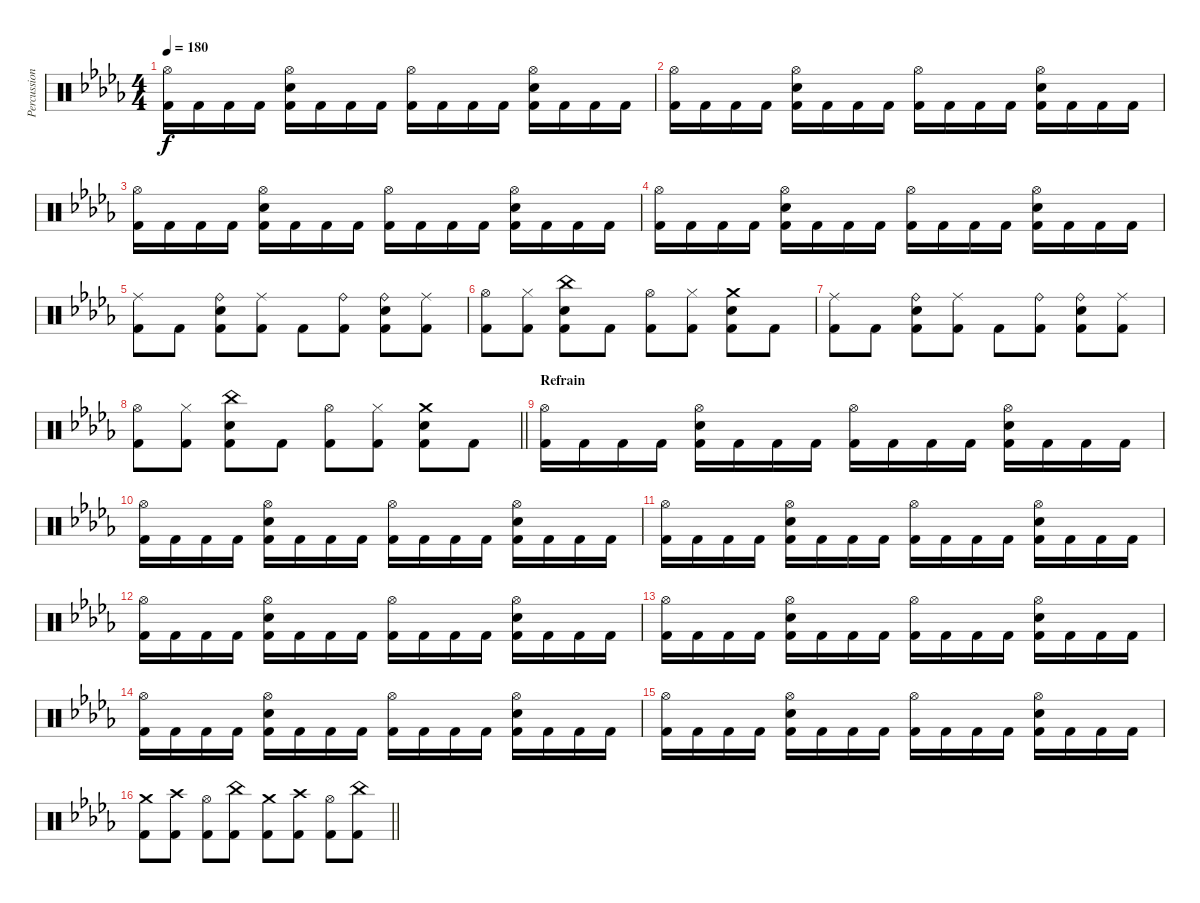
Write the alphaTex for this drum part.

\track ("Percussions" "Percussion") {instrument percussion}
\staff {score}
\articulation defaults
\ts (4 4)
\tempo 180
\clef neutral
\ks bbminor
("Hi-Hat (open)" "Kick (hit) 2").16{dy f} "Kick (hit) 2".16 "Kick (hit) 2".16 "Kick (hit) 2".16 ("Hi-Hat (open)" "Electric Snare (hit)" "Kick (hit) 2").16 "Kick (hit) 2".16 "Kick (hit) 2".16 "Kick (hit) 2".16 ("Hi-Hat (open)" "Kick (hit) 2").16 "Kick (hit) 2".16 "Kick (hit) 2".16 "Kick (hit) 2".16 ("Hi-Hat (open)" "Electric Snare (hit)" "Kick (hit) 2").16 "Kick (hit) 2".16 "Kick (hit) 2".16 "Kick (hit) 2".16 |
("Hi-Hat (open)" "Kick (hit) 2").16 "Kick (hit) 2".16 "Kick (hit) 2".16 "Kick (hit) 2".16 ("Hi-Hat (open)" "Electric Snare (hit)" "Kick (hit) 2").16 "Kick (hit) 2".16 "Kick (hit) 2".16 "Kick (hit) 2".16 ("Hi-Hat (open)" "Kick (hit) 2").16 "Kick (hit) 2".16 "Kick (hit) 2".16 "Kick (hit) 2".16 ("Hi-Hat (open)" "Electric Snare (hit)" "Kick (hit) 2").16 "Kick (hit) 2".16 "Kick (hit) 2".16 "Kick (hit) 2".16 |
("Hi-Hat (open)" "Kick (hit) 2").16 "Kick (hit) 2".16 "Kick (hit) 2".16 "Kick (hit) 2".16 ("Hi-Hat (open)" "Electric Snare (hit)" "Kick (hit) 2").16 "Kick (hit) 2".16 "Kick (hit) 2".16 "Kick (hit) 2".16 ("Hi-Hat (open)" "Kick (hit) 2").16 "Kick (hit) 2".16 "Kick (hit) 2".16 "Kick (hit) 2".16 ("Hi-Hat (open)" "Electric Snare (hit)" "Kick (hit) 2").16 "Kick (hit) 2".16 "Kick (hit) 2".16 "Kick (hit) 2".16 |
("Hi-Hat (open)" "Kick (hit) 2").16 "Kick (hit) 2".16 "Kick (hit) 2".16 "Kick (hit) 2".16 ("Hi-Hat (open)" "Electric Snare (hit)" "Kick (hit) 2").16 "Kick (hit) 2".16 "Kick (hit) 2".16 "Kick (hit) 2".16 ("Hi-Hat (open)" "Kick (hit) 2").16 "Kick (hit) 2".16 "Kick (hit) 2".16 "Kick (hit) 2".16 ("Hi-Hat (open)" "Electric Snare (hit)" "Kick (hit) 2").16 "Kick (hit) 2".16 "Kick (hit) 2".16 "Kick (hit) 2".16 |
("Ride (middle)" "Kick (hit) 2").8 "Kick (hit) 2".8 ("Ride (bell)" "Electric Snare (hit)" "Kick (hit) 2").8 ("Ride (middle)" "Kick (hit) 2").8 "Kick (hit) 2".8 ("Ride (bell)" "Kick (hit) 2").8 ("Ride (bell)" "Electric Snare (hit)" "Kick (hit) 2").8 ("Ride (middle)" "Kick (hit) 2").8 |
("Hi-Hat (open)" "Kick (hit) 2").8 ("Hi-Hat (closed)" "Kick (hit) 2").8 ("China (hit)" "Electric Snare (hit)" "Kick (hit) 2").8 "Kick (hit) 2".8 ("Hi-Hat (open)" "Kick (hit) 2").8 ("Hi-Hat (closed)" "Kick (hit) 2").8 ("Crash medium (hit)" "Electric Snare (hit)" "Kick (hit) 2").8 "Kick (hit) 2".8 |
("Ride (middle)" "Kick (hit) 2").8 "Kick (hit) 2".8 ("Ride (bell)" "Electric Snare (hit)" "Kick (hit) 2").8 ("Ride (middle)" "Kick (hit) 2").8 "Kick (hit) 2".8 ("Ride (bell)" "Kick (hit) 2").8 ("Ride (bell)" "Electric Snare (hit)" "Kick (hit) 2").8 ("Ride (middle)" "Kick (hit) 2").8 |
\barLineRight lightlight
("Hi-Hat (open)" "Kick (hit) 2").8 ("Hi-Hat (closed)" "Kick (hit) 2").8 ("China (hit)" "Electric Snare (hit)" "Kick (hit) 2").8 "Kick (hit) 2".8 ("Hi-Hat (open)" "Kick (hit) 2").8 ("Hi-Hat (closed)" "Kick (hit) 2").8 ("Crash medium (hit)" "Electric Snare (hit)" "Kick (hit) 2").8 "Kick (hit) 2".8 |
\section ("" "Refrain")
("Hi-Hat (open)" "Kick (hit) 2").16 "Kick (hit) 2".16 "Kick (hit) 2".16 "Kick (hit) 2".16 ("Hi-Hat (open)" "Electric Snare (hit)" "Kick (hit) 2").16 "Kick (hit) 2".16 "Kick (hit) 2".16 "Kick (hit) 2".16 ("Hi-Hat (open)" "Kick (hit) 2").16 "Kick (hit) 2".16 "Kick (hit) 2".16 "Kick (hit) 2".16 ("Hi-Hat (open)" "Electric Snare (hit)" "Kick (hit) 2").16 "Kick (hit) 2".16 "Kick (hit) 2".16 "Kick (hit) 2".16 |
("Hi-Hat (open)" "Kick (hit) 2").16 "Kick (hit) 2".16 "Kick (hit) 2".16 "Kick (hit) 2".16 ("Hi-Hat (open)" "Electric Snare (hit)" "Kick (hit) 2").16 "Kick (hit) 2".16 "Kick (hit) 2".16 "Kick (hit) 2".16 ("Hi-Hat (open)" "Kick (hit) 2").16 "Kick (hit) 2".16 "Kick (hit) 2".16 "Kick (hit) 2".16 ("Hi-Hat (open)" "Electric Snare (hit)" "Kick (hit) 2").16 "Kick (hit) 2".16 "Kick (hit) 2".16 "Kick (hit) 2".16 |
("Hi-Hat (open)" "Kick (hit) 2").16 "Kick (hit) 2".16 "Kick (hit) 2".16 "Kick (hit) 2".16 ("Hi-Hat (open)" "Electric Snare (hit)" "Kick (hit) 2").16 "Kick (hit) 2".16 "Kick (hit) 2".16 "Kick (hit) 2".16 ("Hi-Hat (open)" "Kick (hit) 2").16 "Kick (hit) 2".16 "Kick (hit) 2".16 "Kick (hit) 2".16 ("Hi-Hat (open)" "Electric Snare (hit)" "Kick (hit) 2").16 "Kick (hit) 2".16 "Kick (hit) 2".16 "Kick (hit) 2".16 |
("Hi-Hat (open)" "Kick (hit) 2").16 "Kick (hit) 2".16 "Kick (hit) 2".16 "Kick (hit) 2".16 ("Hi-Hat (open)" "Electric Snare (hit)" "Kick (hit) 2").16 "Kick (hit) 2".16 "Kick (hit) 2".16 "Kick (hit) 2".16 ("Hi-Hat (open)" "Kick (hit) 2").16 "Kick (hit) 2".16 "Kick (hit) 2".16 "Kick (hit) 2".16 ("Hi-Hat (open)" "Electric Snare (hit)" "Kick (hit) 2").16 "Kick (hit) 2".16 "Kick (hit) 2".16 "Kick (hit) 2".16 |
("Hi-Hat (open)" "Kick (hit) 2").16 "Kick (hit) 2".16 "Kick (hit) 2".16 "Kick (hit) 2".16 ("Hi-Hat (open)" "Electric Snare (hit)" "Kick (hit) 2").16 "Kick (hit) 2".16 "Kick (hit) 2".16 "Kick (hit) 2".16 ("Hi-Hat (open)" "Kick (hit) 2").16 "Kick (hit) 2".16 "Kick (hit) 2".16 "Kick (hit) 2".16 ("Hi-Hat (open)" "Electric Snare (hit)" "Kick (hit) 2").16 "Kick (hit) 2".16 "Kick (hit) 2".16 "Kick (hit) 2".16 |
("Hi-Hat (open)" "Kick (hit) 2").16 "Kick (hit) 2".16 "Kick (hit) 2".16 "Kick (hit) 2".16 ("Hi-Hat (open)" "Electric Snare (hit)" "Kick (hit) 2").16 "Kick (hit) 2".16 "Kick (hit) 2".16 "Kick (hit) 2".16 ("Hi-Hat (open)" "Kick (hit) 2").16 "Kick (hit) 2".16 "Kick (hit) 2".16 "Kick (hit) 2".16 ("Hi-Hat (open)" "Electric Snare (hit)" "Kick (hit) 2").16 "Kick (hit) 2".16 "Kick (hit) 2".16 "Kick (hit) 2".16 |
("Hi-Hat (open)" "Kick (hit) 2").16 "Kick (hit) 2".16 "Kick (hit) 2".16 "Kick (hit) 2".16 ("Hi-Hat (open)" "Electric Snare (hit)" "Kick (hit) 2").16 "Kick (hit) 2".16 "Kick (hit) 2".16 "Kick (hit) 2".16 ("Hi-Hat (open)" "Kick (hit) 2").16 "Kick (hit) 2".16 "Kick (hit) 2".16 "Kick (hit) 2".16 ("Hi-Hat (open)" "Electric Snare (hit)" "Kick (hit) 2").16 "Kick (hit) 2".16 "Kick (hit) 2".16 "Kick (hit) 2".16 |
\barLineRight lightlight
("Crash medium (hit)" "Kick (hit) 2").8 ("Crash high (hit)" "Kick (hit) 2").8 ("Hi-Hat (open)" "Kick (hit) 2").8 ("China (hit)" "Kick (hit) 2").8 ("Crash medium (hit)" "Kick (hit) 2").8 ("Crash high (hit)" "Kick (hit) 2").8 ("Hi-Hat (open)" "Kick (hit) 2").8 ("China (hit)" "Kick (hit) 2").8
